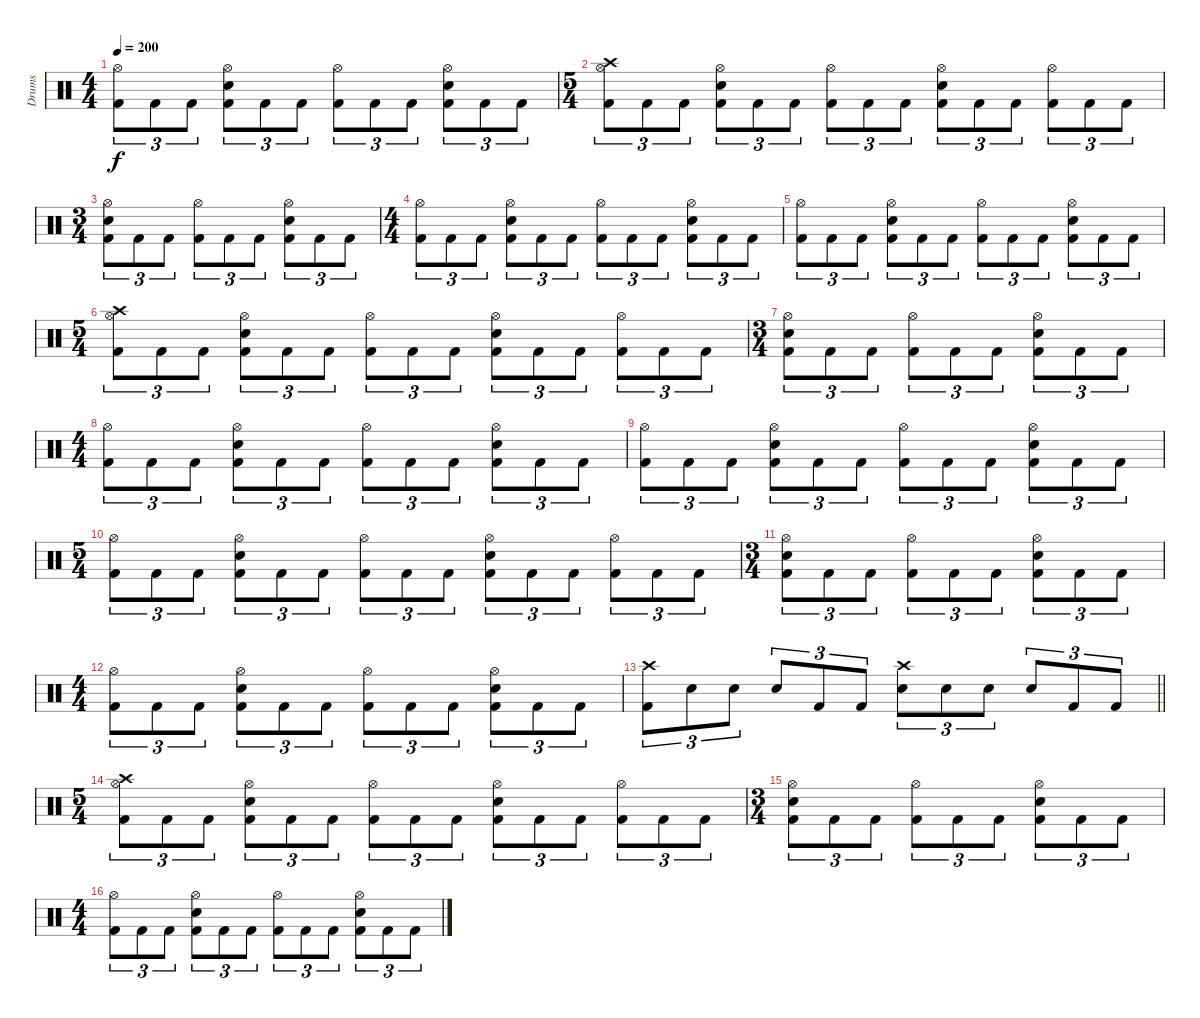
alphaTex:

\track ("Drums" "Drums") {instrument percussion}
\staff {score}
\articulation defaults
\ts (4 4)
\tempo 200
\clef neutral
\ks c
("Hi-Hat (open)" "Kick (hit) 2").8{tu (3 2) dy f} "Kick (hit) 2".8{tu (3 2)} "Kick (hit) 2".8{tu (3 2)} ("Hi-Hat (open)" "Electric Snare (hit)" "Kick (hit) 2").8{tu (3 2)} "Kick (hit) 2".8{tu (3 2)} "Kick (hit) 2".8{tu (3 2)} ("Hi-Hat (open)" "Kick (hit) 2").8{tu (3 2)} "Kick (hit) 2".8{tu (3 2)} "Kick (hit) 2".8{tu (3 2)} ("Hi-Hat (open)" "Electric Snare (hit)" "Kick (hit) 2").8{tu (3 2)} "Kick (hit) 2".8{tu (3 2)} "Kick (hit) 2".8{tu (3 2)} |
\ts (5 4)
("Crash high (hit)" "Hi-Hat (open)" "Kick (hit) 2").8{tu (3 2)} "Kick (hit) 2".8{tu (3 2)} "Kick (hit) 2".8{tu (3 2)} ("Hi-Hat (open)" "Electric Snare (hit)" "Kick (hit) 2").8{tu (3 2)} "Kick (hit) 2".8{tu (3 2)} "Kick (hit) 2".8{tu (3 2)} ("Hi-Hat (open)" "Kick (hit) 2").8{tu (3 2)} "Kick (hit) 2".8{tu (3 2)} "Kick (hit) 2".8{tu (3 2)} ("Hi-Hat (open)" "Electric Snare (hit)" "Kick (hit) 2").8{tu (3 2)} "Kick (hit) 2".8{tu (3 2)} "Kick (hit) 2".8{tu (3 2)} ("Hi-Hat (open)" "Kick (hit) 2").8{tu (3 2)} "Kick (hit) 2".8{tu (3 2)} "Kick (hit) 2".8{tu (3 2)} |
\ts (3 4)
("Hi-Hat (open)" "Electric Snare (hit)" "Kick (hit) 2").8{tu (3 2)} "Kick (hit) 2".8{tu (3 2)} "Kick (hit) 2".8{tu (3 2)} ("Hi-Hat (open)" "Kick (hit) 2").8{tu (3 2)} "Kick (hit) 2".8{tu (3 2)} "Kick (hit) 2".8{tu (3 2)} ("Hi-Hat (open)" "Electric Snare (hit)" "Kick (hit) 2").8{tu (3 2)} "Kick (hit) 2".8{tu (3 2)} "Kick (hit) 2".8{tu (3 2)} |
\ts (4 4)
("Hi-Hat (open)" "Kick (hit) 2").8{tu (3 2)} "Kick (hit) 2".8{tu (3 2)} "Kick (hit) 2".8{tu (3 2)} ("Hi-Hat (open)" "Electric Snare (hit)" "Kick (hit) 2").8{tu (3 2)} "Kick (hit) 2".8{tu (3 2)} "Kick (hit) 2".8{tu (3 2)} ("Hi-Hat (open)" "Kick (hit) 2").8{tu (3 2)} "Kick (hit) 2".8{tu (3 2)} "Kick (hit) 2".8{tu (3 2)} ("Hi-Hat (open)" "Electric Snare (hit)" "Kick (hit) 2").8{tu (3 2)} "Kick (hit) 2".8{tu (3 2)} "Kick (hit) 2".8{tu (3 2)} |
("Hi-Hat (open)" "Kick (hit) 2").8{tu (3 2)} "Kick (hit) 2".8{tu (3 2)} "Kick (hit) 2".8{tu (3 2)} ("Hi-Hat (open)" "Electric Snare (hit)" "Kick (hit) 2").8{tu (3 2)} "Kick (hit) 2".8{tu (3 2)} "Kick (hit) 2".8{tu (3 2)} ("Hi-Hat (open)" "Kick (hit) 2").8{tu (3 2)} "Kick (hit) 2".8{tu (3 2)} "Kick (hit) 2".8{tu (3 2)} ("Hi-Hat (open)" "Electric Snare (hit)" "Kick (hit) 2").8{tu (3 2)} "Kick (hit) 2".8{tu (3 2)} "Kick (hit) 2".8{tu (3 2)} |
\ts (5 4)
("Crash high (hit)" "Hi-Hat (open)" "Kick (hit) 2").8{tu (3 2)} "Kick (hit) 2".8{tu (3 2)} "Kick (hit) 2".8{tu (3 2)} ("Hi-Hat (open)" "Electric Snare (hit)" "Kick (hit) 2").8{tu (3 2)} "Kick (hit) 2".8{tu (3 2)} "Kick (hit) 2".8{tu (3 2)} ("Hi-Hat (open)" "Kick (hit) 2").8{tu (3 2)} "Kick (hit) 2".8{tu (3 2)} "Kick (hit) 2".8{tu (3 2)} ("Hi-Hat (open)" "Electric Snare (hit)" "Kick (hit) 2").8{tu (3 2)} "Kick (hit) 2".8{tu (3 2)} "Kick (hit) 2".8{tu (3 2)} ("Hi-Hat (open)" "Kick (hit) 2").8{tu (3 2)} "Kick (hit) 2".8{tu (3 2)} "Kick (hit) 2".8{tu (3 2)} |
\ts (3 4)
("Hi-Hat (open)" "Electric Snare (hit)" "Kick (hit) 2").8{tu (3 2)} "Kick (hit) 2".8{tu (3 2)} "Kick (hit) 2".8{tu (3 2)} ("Hi-Hat (open)" "Kick (hit) 2").8{tu (3 2)} "Kick (hit) 2".8{tu (3 2)} "Kick (hit) 2".8{tu (3 2)} ("Hi-Hat (open)" "Electric Snare (hit)" "Kick (hit) 2").8{tu (3 2)} "Kick (hit) 2".8{tu (3 2)} "Kick (hit) 2".8{tu (3 2)} |
\ts (4 4)
("Hi-Hat (open)" "Kick (hit) 2").8{tu (3 2)} "Kick (hit) 2".8{tu (3 2)} "Kick (hit) 2".8{tu (3 2)} ("Hi-Hat (open)" "Electric Snare (hit)" "Kick (hit) 2").8{tu (3 2)} "Kick (hit) 2".8{tu (3 2)} "Kick (hit) 2".8{tu (3 2)} ("Hi-Hat (open)" "Kick (hit) 2").8{tu (3 2)} "Kick (hit) 2".8{tu (3 2)} "Kick (hit) 2".8{tu (3 2)} ("Hi-Hat (open)" "Electric Snare (hit)" "Kick (hit) 2").8{tu (3 2)} "Kick (hit) 2".8{tu (3 2)} "Kick (hit) 2".8{tu (3 2)} |
("Hi-Hat (open)" "Kick (hit) 2").8{tu (3 2)} "Kick (hit) 2".8{tu (3 2)} "Kick (hit) 2".8{tu (3 2)} ("Hi-Hat (open)" "Electric Snare (hit)" "Kick (hit) 2").8{tu (3 2)} "Kick (hit) 2".8{tu (3 2)} "Kick (hit) 2".8{tu (3 2)} ("Hi-Hat (open)" "Kick (hit) 2").8{tu (3 2)} "Kick (hit) 2".8{tu (3 2)} "Kick (hit) 2".8{tu (3 2)} ("Hi-Hat (open)" "Electric Snare (hit)" "Kick (hit) 2").8{tu (3 2)} "Kick (hit) 2".8{tu (3 2)} "Kick (hit) 2".8{tu (3 2)} |
\ts (5 4)
("Hi-Hat (open)" "Kick (hit) 2").8{tu (3 2)} "Kick (hit) 2".8{tu (3 2)} "Kick (hit) 2".8{tu (3 2)} ("Hi-Hat (open)" "Electric Snare (hit)" "Kick (hit) 2").8{tu (3 2)} "Kick (hit) 2".8{tu (3 2)} "Kick (hit) 2".8{tu (3 2)} ("Hi-Hat (open)" "Kick (hit) 2").8{tu (3 2)} "Kick (hit) 2".8{tu (3 2)} "Kick (hit) 2".8{tu (3 2)} ("Hi-Hat (open)" "Electric Snare (hit)" "Kick (hit) 2").8{tu (3 2)} "Kick (hit) 2".8{tu (3 2)} "Kick (hit) 2".8{tu (3 2)} ("Hi-Hat (open)" "Kick (hit) 2").8{tu (3 2)} "Kick (hit) 2".8{tu (3 2)} "Kick (hit) 2".8{tu (3 2)} |
\ts (3 4)
("Hi-Hat (open)" "Electric Snare (hit)" "Kick (hit) 2").8{tu (3 2)} "Kick (hit) 2".8{tu (3 2)} "Kick (hit) 2".8{tu (3 2)} ("Hi-Hat (open)" "Kick (hit) 2").8{tu (3 2)} "Kick (hit) 2".8{tu (3 2)} "Kick (hit) 2".8{tu (3 2)} ("Hi-Hat (open)" "Electric Snare (hit)" "Kick (hit) 2").8{tu (3 2)} "Kick (hit) 2".8{tu (3 2)} "Kick (hit) 2".8{tu (3 2)} |
\ts (4 4)
("Hi-Hat (open)" "Kick (hit) 2").8{tu (3 2)} "Kick (hit) 2".8{tu (3 2)} "Kick (hit) 2".8{tu (3 2)} ("Hi-Hat (open)" "Electric Snare (hit)" "Kick (hit) 2").8{tu (3 2)} "Kick (hit) 2".8{tu (3 2)} "Kick (hit) 2".8{tu (3 2)} ("Hi-Hat (open)" "Kick (hit) 2").8{tu (3 2)} "Kick (hit) 2".8{tu (3 2)} "Kick (hit) 2".8{tu (3 2)} ("Hi-Hat (open)" "Electric Snare (hit)" "Kick (hit) 2").8{tu (3 2)} "Kick (hit) 2".8{tu (3 2)} "Kick (hit) 2".8{tu (3 2)} |
\barLineRight lightlight
("Crash high (hit)" "Kick (hit) 2").8{tu (3 2)} "Electric Snare (hit)".8{tu (3 2)} "Electric Snare (hit)".8{tu (3 2)} "Electric Snare (hit)".8{tu (3 2)} "Kick (hit) 2".8{tu (3 2)} "Kick (hit) 2".8{tu (3 2)} ("Crash high (hit)" "Electric Snare (hit)").8{tu (3 2)} "Electric Snare (hit)".8{tu (3 2)} "Electric Snare (hit)".8{tu (3 2)} "Electric Snare (hit)".8{tu (3 2)} "Kick (hit) 2".8{tu (3 2)} "Kick (hit) 2".8{tu (3 2)} |
\ts (5 4)
("Crash high (hit)" "Hi-Hat (open)" "Kick (hit) 2").8{tu (3 2)} "Kick (hit) 2".8{tu (3 2)} "Kick (hit) 2".8{tu (3 2)} ("Hi-Hat (open)" "Electric Snare (hit)" "Kick (hit) 2").8{tu (3 2)} "Kick (hit) 2".8{tu (3 2)} "Kick (hit) 2".8{tu (3 2)} ("Hi-Hat (open)" "Kick (hit) 2").8{tu (3 2)} "Kick (hit) 2".8{tu (3 2)} "Kick (hit) 2".8{tu (3 2)} ("Hi-Hat (open)" "Electric Snare (hit)" "Kick (hit) 2").8{tu (3 2)} "Kick (hit) 2".8{tu (3 2)} "Kick (hit) 2".8{tu (3 2)} ("Hi-Hat (open)" "Kick (hit) 2").8{tu (3 2)} "Kick (hit) 2".8{tu (3 2)} "Kick (hit) 2".8{tu (3 2)} |
\ts (3 4)
("Hi-Hat (open)" "Electric Snare (hit)" "Kick (hit) 2").8{tu (3 2)} "Kick (hit) 2".8{tu (3 2)} "Kick (hit) 2".8{tu (3 2)} ("Hi-Hat (open)" "Kick (hit) 2").8{tu (3 2)} "Kick (hit) 2".8{tu (3 2)} "Kick (hit) 2".8{tu (3 2)} ("Hi-Hat (open)" "Electric Snare (hit)" "Kick (hit) 2").8{tu (3 2)} "Kick (hit) 2".8{tu (3 2)} "Kick (hit) 2".8{tu (3 2)} |
\ts (4 4)
("Hi-Hat (open)" "Kick (hit) 2").8{tu (3 2)} "Kick (hit) 2".8{tu (3 2)} "Kick (hit) 2".8{tu (3 2)} ("Hi-Hat (open)" "Electric Snare (hit)" "Kick (hit) 2").8{tu (3 2)} "Kick (hit) 2".8{tu (3 2)} "Kick (hit) 2".8{tu (3 2)} ("Hi-Hat (open)" "Kick (hit) 2").8{tu (3 2)} "Kick (hit) 2".8{tu (3 2)} "Kick (hit) 2".8{tu (3 2)} ("Hi-Hat (open)" "Electric Snare (hit)" "Kick (hit) 2").8{tu (3 2)} "Kick (hit) 2".8{tu (3 2)} "Kick (hit) 2".8{tu (3 2)}
